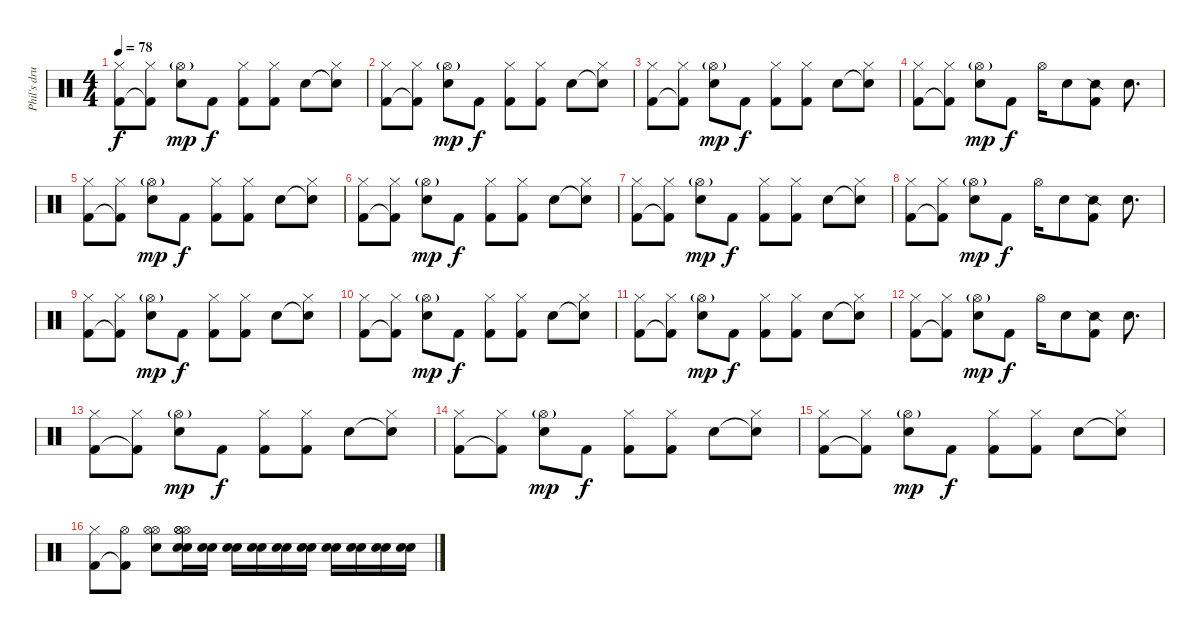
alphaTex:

\track ("Phil's drums" "Phil's dru") {instrument percussion}
\staff {score}
\articulation defaults
\ts (4 4)
\tempo 78
\clef neutral
\ks c
("Kick (hit) 2" "Hi-Hat (closed)").8{dy f} ("Kick (hit) 2"{t} "Hi-Hat (closed)").8 ("Snare (hit) 2" "Hi-Hat (open)"{g}).8{dy mp} "Kick (hit) 2".8{dy f} ("Kick (hit) 2" "Hi-Hat (closed)").8 ("Kick (hit) 2" "Hi-Hat (closed)").8 "Snare (hit) 2".8 ("Snare (hit) 2"{t} "Hi-Hat (closed)").8 |
("Kick (hit) 2" "Hi-Hat (closed)").8 ("Kick (hit) 2"{t} "Hi-Hat (closed)").8 ("Snare (hit) 2" "Hi-Hat (open)"{g}).8{dy mp} "Kick (hit) 2".8{dy f} ("Kick (hit) 2" "Hi-Hat (closed)").8 ("Kick (hit) 2" "Hi-Hat (closed)").8 "Snare (hit) 2".8 ("Snare (hit) 2"{t} "Hi-Hat (closed)").8 |
("Kick (hit) 2" "Hi-Hat (closed)").8 ("Kick (hit) 2"{t} "Hi-Hat (closed)").8 ("Snare (hit) 2" "Hi-Hat (open)"{g}).8{dy mp} "Kick (hit) 2".8{dy f} ("Kick (hit) 2" "Hi-Hat (closed)").8 ("Kick (hit) 2" "Hi-Hat (closed)").8 "Snare (hit) 2".8 ("Snare (hit) 2"{t} "Hi-Hat (closed)").8 |
("Kick (hit) 2" "Hi-Hat (closed)").8 ("Kick (hit) 2"{t} "Hi-Hat (closed)").8 ("Snare (hit) 2" "Hi-Hat (open)"{g}).8{dy mp} "Kick (hit) 2".8{dy f} "Hi-Hat (open)".16 "Snare (hit) 2".8 ("Snare (side stick) 2" "Kick (hit) 2").8 "Snare (hit) 2".8{d} |
("Kick (hit) 2" "Hi-Hat (closed)").8 ("Kick (hit) 2"{t} "Hi-Hat (closed)").8 ("Snare (hit) 2" "Hi-Hat (open)"{g}).8{dy mp} "Kick (hit) 2".8{dy f} ("Kick (hit) 2" "Hi-Hat (closed)").8 ("Kick (hit) 2" "Hi-Hat (closed)").8 "Snare (hit) 2".8 ("Snare (hit) 2"{t} "Hi-Hat (closed)").8 |
("Kick (hit) 2" "Hi-Hat (closed)").8 ("Kick (hit) 2"{t} "Hi-Hat (closed)").8 ("Snare (hit) 2" "Hi-Hat (open)"{g}).8{dy mp} "Kick (hit) 2".8{dy f} ("Kick (hit) 2" "Hi-Hat (closed)").8 ("Kick (hit) 2" "Hi-Hat (closed)").8 "Snare (hit) 2".8 ("Snare (hit) 2"{t} "Hi-Hat (closed)").8 |
("Kick (hit) 2" "Hi-Hat (closed)").8 ("Kick (hit) 2"{t} "Hi-Hat (closed)").8 ("Snare (hit) 2" "Hi-Hat (open)"{g}).8{dy mp} "Kick (hit) 2".8{dy f} ("Kick (hit) 2" "Hi-Hat (closed)").8 ("Kick (hit) 2" "Hi-Hat (closed)").8 "Snare (hit) 2".8 ("Snare (hit) 2"{t} "Hi-Hat (closed)").8 |
("Kick (hit) 2" "Hi-Hat (closed)").8 ("Kick (hit) 2"{t} "Hi-Hat (closed)").8 ("Snare (hit) 2" "Hi-Hat (open)"{g}).8{dy mp} "Kick (hit) 2".8{dy f} "Hi-Hat (open)".16 "Snare (hit) 2".8 ("Snare (side stick) 2" "Kick (hit) 2").8 "Snare (hit) 2".8{d} |
("Kick (hit) 2" "Hi-Hat (closed)").8 ("Kick (hit) 2"{t} "Hi-Hat (closed)").8 ("Snare (hit) 2" "Hi-Hat (open)"{g}).8{dy mp} "Kick (hit) 2".8{dy f} ("Kick (hit) 2" "Hi-Hat (closed)").8 ("Kick (hit) 2" "Hi-Hat (closed)").8 "Snare (hit) 2".8 ("Snare (hit) 2"{t} "Hi-Hat (closed)").8 |
("Kick (hit) 2" "Hi-Hat (closed)").8 ("Kick (hit) 2"{t} "Hi-Hat (closed)").8 ("Snare (hit) 2" "Hi-Hat (open)"{g}).8{dy mp} "Kick (hit) 2".8{dy f} ("Kick (hit) 2" "Hi-Hat (closed)").8 ("Kick (hit) 2" "Hi-Hat (closed)").8 "Snare (hit) 2".8 ("Snare (hit) 2"{t} "Hi-Hat (closed)").8 |
("Kick (hit) 2" "Hi-Hat (closed)").8 ("Kick (hit) 2"{t} "Hi-Hat (closed)").8 ("Snare (hit) 2" "Hi-Hat (open)"{g}).8{dy mp} "Kick (hit) 2".8{dy f} ("Kick (hit) 2" "Hi-Hat (closed)").8 ("Kick (hit) 2" "Hi-Hat (closed)").8 "Snare (hit) 2".8 ("Snare (hit) 2"{t} "Hi-Hat (closed)").8 |
("Kick (hit) 2" "Hi-Hat (closed)").8 ("Kick (hit) 2"{t} "Hi-Hat (closed)").8 ("Snare (hit) 2" "Hi-Hat (open)"{g}).8{dy mp} "Kick (hit) 2".8{dy f} "Hi-Hat (open)".16 "Snare (hit) 2".8 ("Snare (side stick) 2" "Kick (hit) 2").8 "Snare (hit) 2".8{d} |
("Kick (hit) 2" "Hi-Hat (closed)").8 ("Kick (hit) 2"{t} "Hi-Hat (closed)").8 ("Snare (hit) 2" "Hi-Hat (open)"{g}).8{dy mp} "Kick (hit) 2".8{dy f} ("Kick (hit) 2" "Hi-Hat (closed)").8 ("Kick (hit) 2" "Hi-Hat (closed)").8 "Snare (hit) 2".8 ("Snare (hit) 2"{t} "Hi-Hat (closed)").8 |
("Kick (hit) 2" "Hi-Hat (closed)").8 ("Kick (hit) 2"{t} "Hi-Hat (closed)").8 ("Snare (hit) 2" "Hi-Hat (open)"{g}).8{dy mp} "Kick (hit) 2".8{dy f} ("Kick (hit) 2" "Hi-Hat (closed)").8 ("Kick (hit) 2" "Hi-Hat (closed)").8 "Snare (hit) 2".8 ("Snare (hit) 2"{t} "Hi-Hat (closed)").8 |
("Kick (hit) 2" "Hi-Hat (closed)").8 ("Kick (hit) 2"{t} "Hi-Hat (closed)").8 ("Snare (hit) 2" "Hi-Hat (open)"{g}).8{dy mp} "Kick (hit) 2".8{dy f} ("Kick (hit) 2" "Hi-Hat (closed)").8 ("Kick (hit) 2" "Hi-Hat (closed)").8 "Snare (hit) 2".8 ("Snare (hit) 2"{t} "Hi-Hat (closed)").8 |
("Kick (hit) 2" "Hi-Hat (closed)").8 ("Kick (hit) 2"{t} "Hi-Hat (open)").8 ("Snare (hit) 2" "Hi-Hat (open)" "Hi-Hat (open)").8 ("Snare (hit) 2" "Snare (hit) 2" "Hi-Hat (open)" "Hi-Hat (open)" "Hi-Hat (open)").16 ("Snare (hit) 2" "Snare (hit) 2").16{volume 16} ("Snare (hit) 2" "Snare (hit) 2").16 ("Snare (hit) 2" "Snare (hit) 2").16 ("Snare (hit) 2" "Snare (hit) 2").16 ("Snare (hit) 2" "Snare (hit) 2").16 ("Snare (hit) 2" "Snare (hit) 2").16 ("Snare (hit) 2" "Snare (hit) 2").16 ("Snare (hit) 2" "Snare (hit) 2").16 ("Snare (hit) 2" "Snare (hit) 2").16
